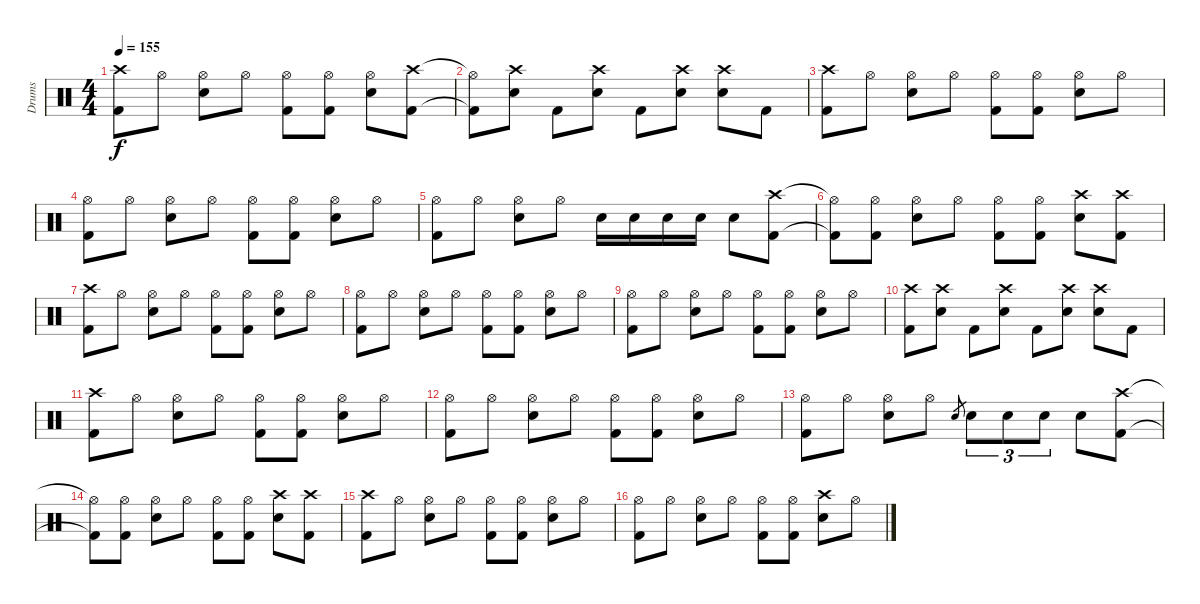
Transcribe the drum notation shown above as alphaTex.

\track ("Drums" "Drums") {instrument percussion}
\staff {score}
\articulation defaults
\ts (4 4)
\tempo 155
\clef neutral
\ks c
("Crash high (hit)" "Kick (hit) 2").8{dy f} "Hi-Hat (open)".8 ("Hi-Hat (open)" "Electric Snare (hit)").8 "Hi-Hat (open)".8 ("Hi-Hat (open)" "Kick (hit) 2").8 ("Hi-Hat (open)" "Kick (hit) 2").8 ("Hi-Hat (open)" "Electric Snare (hit)").8 ("Crash high (hit)" "Kick (hit) 2").8 |
("Hi-Hat (open)"{t} "Kick (hit) 2"{t}).8 ("Crash high (hit)" "Electric Snare (hit)").8 "Kick (hit) 2".8 ("Crash high (hit)" "Electric Snare (hit)").8 "Kick (hit) 2".8 ("Crash high (hit)" "Electric Snare (hit)").8 ("Crash high (hit)" "Electric Snare (hit)").8 "Kick (hit) 2".8 |
("Crash high (hit)" "Kick (hit) 2").8 "Hi-Hat (open)".8 ("Hi-Hat (open)" "Electric Snare (hit)").8 "Hi-Hat (open)".8 ("Hi-Hat (open)" "Kick (hit) 2").8 ("Hi-Hat (open)" "Kick (hit) 2").8 ("Hi-Hat (open)" "Electric Snare (hit)").8 "Hi-Hat (open)".8 |
("Hi-Hat (open)" "Kick (hit) 2").8 "Hi-Hat (open)".8 ("Hi-Hat (open)" "Electric Snare (hit)").8 "Hi-Hat (open)".8 ("Hi-Hat (open)" "Kick (hit) 2").8 ("Hi-Hat (open)" "Kick (hit) 2").8 ("Hi-Hat (open)" "Electric Snare (hit)").8 "Hi-Hat (open)".8 |
("Hi-Hat (open)" "Kick (hit) 2").8 "Hi-Hat (open)".8 ("Hi-Hat (open)" "Electric Snare (hit)").8 "Hi-Hat (open)".8 "Electric Snare (hit)".16 "Electric Snare (hit)".16 "Electric Snare (hit)".16 "Electric Snare (hit)".16 "Electric Snare (hit)".8 ("Crash high (hit)" "Kick (hit) 2").8 |
("Hi-Hat (open)"{t} "Kick (hit) 2"{t}).8 ("Hi-Hat (open)" "Kick (hit) 2").8 ("Hi-Hat (open)" "Electric Snare (hit)").8 "Hi-Hat (open)".8 ("Hi-Hat (open)" "Kick (hit) 2").8 ("Hi-Hat (open)" "Kick (hit) 2").8 ("Crash high (hit)" "Electric Snare (hit)").8 ("Crash high (hit)" "Kick (hit) 2").8 |
("Crash high (hit)" "Kick (hit) 2").8 "Hi-Hat (open)".8 ("Hi-Hat (open)" "Electric Snare (hit)").8 "Hi-Hat (open)".8 ("Hi-Hat (open)" "Kick (hit) 2").8 ("Hi-Hat (open)" "Kick (hit) 2").8 ("Hi-Hat (open)" "Electric Snare (hit)").8 "Hi-Hat (open)".8 |
("Hi-Hat (open)" "Kick (hit) 2").8 "Hi-Hat (open)".8 ("Hi-Hat (open)" "Electric Snare (hit)").8 "Hi-Hat (open)".8 ("Hi-Hat (open)" "Kick (hit) 2").8 ("Hi-Hat (open)" "Kick (hit) 2").8 ("Hi-Hat (open)" "Electric Snare (hit)").8 "Hi-Hat (open)".8 |
("Hi-Hat (open)" "Kick (hit) 2").8 "Hi-Hat (open)".8 ("Hi-Hat (open)" "Electric Snare (hit)").8 "Hi-Hat (open)".8 ("Hi-Hat (open)" "Kick (hit) 2").8 ("Hi-Hat (open)" "Kick (hit) 2").8 ("Hi-Hat (open)" "Electric Snare (hit)").8 "Hi-Hat (open)".8 |
("Crash high (hit)" "Kick (hit) 2").8 ("Crash high (hit)" "Electric Snare (hit)").8 "Kick (hit) 2".8 ("Crash high (hit)" "Electric Snare (hit)").8 "Kick (hit) 2".8 ("Crash high (hit)" "Electric Snare (hit)").8 ("Crash high (hit)" "Electric Snare (hit)").8 "Kick (hit) 2".8 |
("Crash high (hit)" "Kick (hit) 2").8 "Hi-Hat (open)".8 ("Hi-Hat (open)" "Electric Snare (hit)").8 "Hi-Hat (open)".8 ("Hi-Hat (open)" "Kick (hit) 2").8 ("Hi-Hat (open)" "Kick (hit) 2").8 ("Hi-Hat (open)" "Electric Snare (hit)").8 "Hi-Hat (open)".8 |
("Hi-Hat (open)" "Kick (hit) 2").8 "Hi-Hat (open)".8 ("Hi-Hat (open)" "Electric Snare (hit)").8 "Hi-Hat (open)".8 ("Hi-Hat (open)" "Kick (hit) 2").8 ("Hi-Hat (open)" "Kick (hit) 2").8 ("Hi-Hat (open)" "Electric Snare (hit)").8 "Hi-Hat (open)".8 |
("Hi-Hat (open)" "Kick (hit) 2").8 "Hi-Hat (open)".8 ("Hi-Hat (open)" "Electric Snare (hit)").8 "Hi-Hat (open)".8 "Electric Snare (hit)".8{gr} "Electric Snare (hit)".8{tu (3 2)} "Electric Snare (hit)".8{tu (3 2)} "Electric Snare (hit)".8{tu (3 2)} "Electric Snare (hit)".8 ("Crash high (hit)" "Kick (hit) 2").8 |
("Hi-Hat (open)"{t} "Kick (hit) 2"{t}).8 ("Hi-Hat (open)" "Kick (hit) 2").8 ("Hi-Hat (open)" "Electric Snare (hit)").8 "Hi-Hat (open)".8 ("Hi-Hat (open)" "Kick (hit) 2").8 ("Hi-Hat (open)" "Kick (hit) 2").8 ("Crash high (hit)" "Electric Snare (hit)").8 ("Crash high (hit)" "Kick (hit) 2").8 |
("Crash high (hit)" "Kick (hit) 2").8 "Hi-Hat (open)".8 ("Hi-Hat (open)" "Electric Snare (hit)").8 "Hi-Hat (open)".8 ("Hi-Hat (open)" "Kick (hit) 2").8 ("Hi-Hat (open)" "Kick (hit) 2").8 ("Hi-Hat (open)" "Electric Snare (hit)").8 "Hi-Hat (open)".8 |
("Hi-Hat (open)" "Kick (hit) 2").8 "Hi-Hat (open)".8 ("Hi-Hat (open)" "Electric Snare (hit)").8 "Hi-Hat (open)".8 ("Hi-Hat (open)" "Kick (hit) 2").8 ("Hi-Hat (open)" "Kick (hit) 2").8 ("Crash high (hit)" "Electric Snare (hit)").8 "Hi-Hat (open)".8
